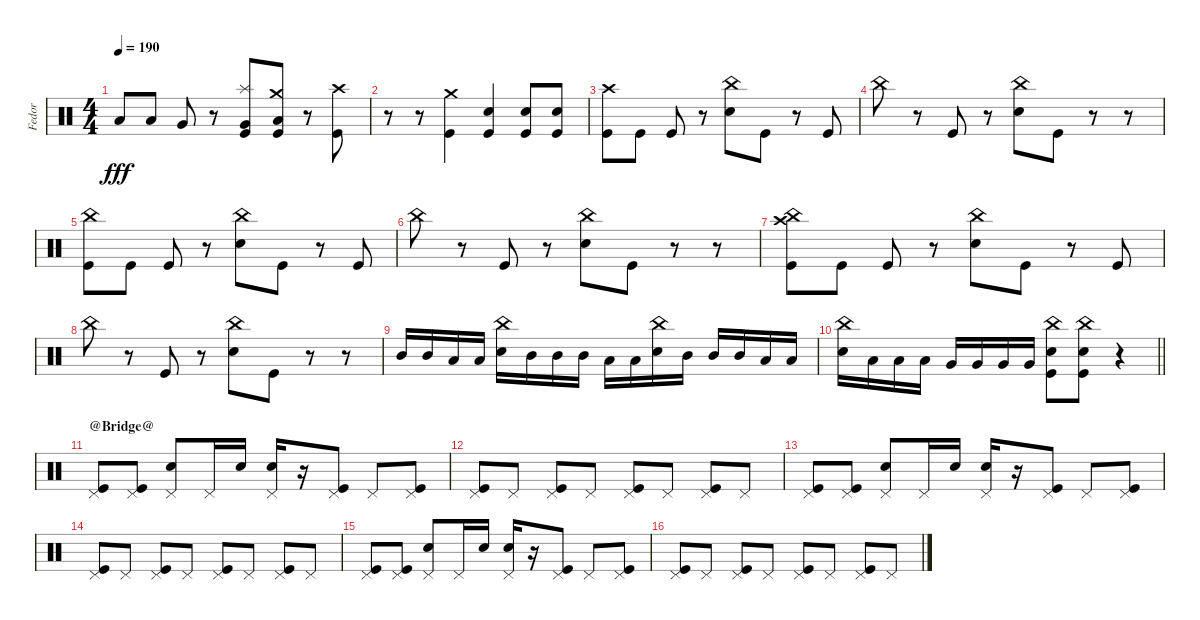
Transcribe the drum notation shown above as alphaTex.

\track ("Fedor" "Fedor") {instrument percussion}
\staff {score}
\articulation defaults
\ts (4 4)
\tempo 190
\clef neutral
\ks c "Low Floor Tom (hit)".8{dy fff} "Low Floor Tom (hit)".8 "Very Low Tom (hit)".8
r.8 ("Splash (hit)" "Very Low Tom (hit)" "Kick (hit)").8 ("Crash medium (hit)" "Low Tom (hit)" "Kick (hit)").8 r.8 ("Crash high (hit)" "Kick (hit)").8 |
r.8 r.8 ("Crash medium (hit)" "Kick (hit)").4 ("Electric Snare (hit)" "Kick (hit)").4 ("Electric Snare (hit)" "Kick (hit)").8 ("Electric Snare (hit)" "Kick (hit)").8 |
("Crash high (hit)" "Kick (hit)").8 "Kick (hit)".8 "Kick (hit)".8 r.8 ("China (hit)" "Electric Snare (hit)").8 "Kick (hit)".8 r.8 "Kick (hit)".8 |
"China (hit)".8 r.8 "Kick (hit)".8 r.8 ("China (hit)" "Electric Snare (hit)").8 "Kick (hit)".8 r.8 r.8 |
("China (hit)" "Kick (hit)").8 "Kick (hit)".8 "Kick (hit)".8 r.8 ("China (hit)" "Electric Snare (hit)").8 "Kick (hit)".8 r.8 "Kick (hit)".8 |
"China (hit)".8 r.8 "Kick (hit)".8 r.8 ("China (hit)" "Electric Snare (hit)").8 "Kick (hit)".8 r.8 r.8 |
("China (hit)" "Crash high (hit)" "Kick (hit)").8 "Kick (hit)".8 "Kick (hit)".8 r.8 ("China (hit)" "Electric Snare (hit)").8 "Kick (hit)".8 r.8 "Kick (hit)".8 |
"China (hit)".8 r.8 "Kick (hit)".8 r.8 ("China (hit)" "Electric Snare (hit)").8 "Kick (hit)".8 r.8 r.8 |
"Mid Tom (hit)".16 "Mid Tom (hit)".16 "Low Tom (hit)".16 "Low Tom (hit)".16 ("China (hit)" "Electric Snare (hit)").16 "Mid Tom (hit)".16 "Mid Tom (hit)".16 "Mid Tom (hit)".16 "Low Tom (hit)".16 "Low Tom (hit)".16 ("China (hit)" "Electric Snare (hit)").16 "Mid Tom (hit)".16 "Mid Tom (hit)".16 "Mid Tom (hit)".16 "Low Tom (hit)".16 "Low Tom (hit)".16 |
\barLineRight lightlight
("China (hit)" "Electric Snare (hit)").16 "Low Tom (hit)".16 "Low Tom (hit)".16 "Low Tom (hit)".16 "Very Low Tom (hit)".16 "Very Low Tom (hit)".16 "Very Low Tom (hit)".16 "Very Low Tom (hit)".16 ("China (hit)" "Electric Snare (hit)" "Kick (hit)").8 ("China (hit)" "Electric Snare (hit)" "Kick (hit)").8 r.4 |
\section ("" "@Bridge@")
("Pedal Hi-Hat (hit)" "Kick (hit)").8 ("Pedal Hi-Hat (hit)" "Kick (hit)").8 ("Pedal Hi-Hat (hit)" "Electric Snare (hit)").8 "Pedal Hi-Hat (hit)".16 "Electric Snare (hit)".16 ("Pedal Hi-Hat (hit)" "Electric Snare (hit)").16 r.16 ("Pedal Hi-Hat (hit)" "Kick (hit)").8 "Pedal Hi-Hat (hit)".8 ("Pedal Hi-Hat (hit)" "Kick (hit)").8 |
("Pedal Hi-Hat (hit)" "Kick (hit)").8 "Pedal Hi-Hat (hit)".8 ("Pedal Hi-Hat (hit)" "Kick (hit)").8 "Pedal Hi-Hat (hit)".8 ("Pedal Hi-Hat (hit)" "Kick (hit)").8 "Pedal Hi-Hat (hit)".8 ("Pedal Hi-Hat (hit)" "Kick (hit)").8 "Pedal Hi-Hat (hit)".8 |
("Pedal Hi-Hat (hit)" "Kick (hit)").8 ("Pedal Hi-Hat (hit)" "Kick (hit)").8 ("Pedal Hi-Hat (hit)" "Electric Snare (hit)").8 "Pedal Hi-Hat (hit)".16 "Electric Snare (hit)".16 ("Pedal Hi-Hat (hit)" "Electric Snare (hit)").16 r.16 ("Pedal Hi-Hat (hit)" "Kick (hit)").8 "Pedal Hi-Hat (hit)".8 ("Pedal Hi-Hat (hit)" "Kick (hit)").8 |
("Pedal Hi-Hat (hit)" "Kick (hit)").8 "Pedal Hi-Hat (hit)".8 ("Pedal Hi-Hat (hit)" "Kick (hit)").8 "Pedal Hi-Hat (hit)".8 ("Pedal Hi-Hat (hit)" "Kick (hit)").8 "Pedal Hi-Hat (hit)".8 ("Pedal Hi-Hat (hit)" "Kick (hit)").8 "Pedal Hi-Hat (hit)".8 |
("Pedal Hi-Hat (hit)" "Kick (hit)").8 ("Pedal Hi-Hat (hit)" "Kick (hit)").8 ("Pedal Hi-Hat (hit)" "Electric Snare (hit)").8 "Pedal Hi-Hat (hit)".16 "Electric Snare (hit)".16 ("Pedal Hi-Hat (hit)" "Electric Snare (hit)").16 r.16 ("Pedal Hi-Hat (hit)" "Kick (hit)").8 "Pedal Hi-Hat (hit)".8 ("Pedal Hi-Hat (hit)" "Kick (hit)").8 |
("Pedal Hi-Hat (hit)" "Kick (hit)").8 "Pedal Hi-Hat (hit)".8 ("Pedal Hi-Hat (hit)" "Kick (hit)").8 "Pedal Hi-Hat (hit)".8 ("Pedal Hi-Hat (hit)" "Kick (hit)").8 "Pedal Hi-Hat (hit)".8 ("Pedal Hi-Hat (hit)" "Kick (hit)").8 "Pedal Hi-Hat (hit)".8
